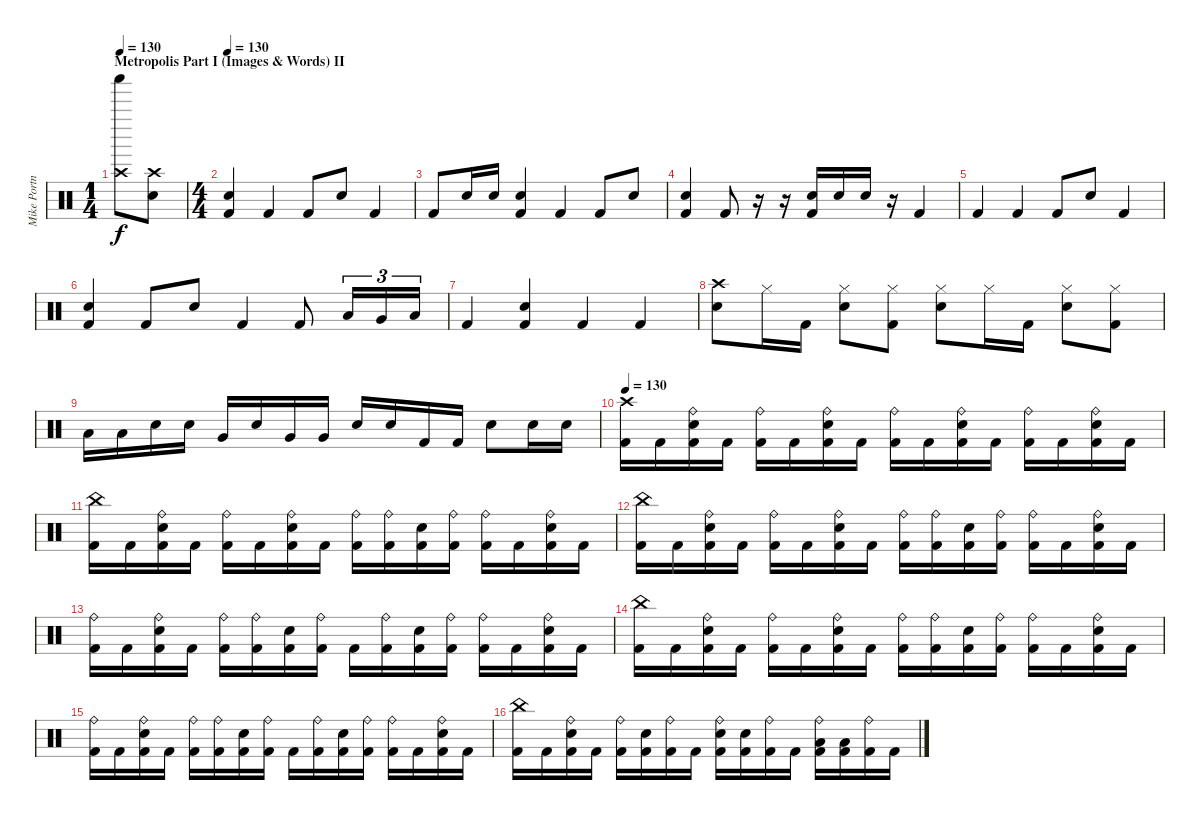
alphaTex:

\track ("Mike Portnoy Drums" "Mike Portn") {instrument percussion}
\staff {score}
\articulation defaults
\ts (1 4)
\section ("" "Metropolis Part I (Images & Words) II")
\tempo 130
\clef neutral
\ks c
("Crash high (hit)" "Shaker (hit)").8{dy f} ("Snare (hit) 2" "Crash high (hit)").8 |
\ts (4 4)
\tempo 130
("Electric Snare (hit)" "Kick (hit) 2").4 "Kick (hit) 2".4 "Kick (hit) 2".8 "Electric Snare (hit)".8 "Kick (hit) 2".4 |
"Kick (hit) 2".8 "Electric Snare (hit)".16 "Electric Snare (hit)".16 ("Electric Snare (hit)" "Kick (hit) 2").4 "Kick (hit) 2".4 "Kick (hit) 2".8 "Electric Snare (hit)".8 |
("Electric Snare (hit)" "Kick (hit) 2").4 "Kick (hit) 2".8 r.16 r.16 ("Electric Snare (hit)" "Kick (hit) 2").16 "Electric Snare (hit)".16 "Electric Snare (hit)".16 r.16 "Kick (hit) 2".4 |
"Kick (hit) 2".4 "Kick (hit) 2".4 "Kick (hit) 2".8 "Electric Snare (hit)".8 "Kick (hit) 2".4 |
("Electric Snare (hit)" "Kick (hit) 2").4 "Kick (hit) 2".8 "Electric Snare (hit)".8 "Kick (hit) 2".4 "Kick (hit) 2".8 "Low Tom (hit)".16{tu (3 2)} "Very Low Tom (hit)".16{tu (3 2)} "Low Floor Tom (hit)".16{tu (3 2)} |
"Kick (hit) 2".4 ("Electric Snare (hit)" "Kick (hit) 2").4 "Kick (hit) 2".4 "Kick (hit) 2".4 |
("Crash high (hit)" "Electric Snare (hit)").8 "Hi-Hat (closed)".16 "Kick (hit) 2".16 ("Hi-Hat (closed)" "Electric Snare (hit)").8 ("Hi-Hat (closed)" "Kick (hit) 2").8 ("Hi-Hat (closed)" "Electric Snare (hit)").8 "Hi-Hat (closed)".16 "Kick (hit) 2".16 ("Hi-Hat (closed)" "Electric Snare (hit)").8 ("Hi-Hat (closed)" "Kick (hit) 2").8 |
"Low Tom (hit)".16 "Low Tom (hit)".16 "Electric Snare (hit)".16 "Electric Snare (hit)".16 "Very Low Tom (hit)".16 "Electric Snare (hit)".16 "Very Low Tom (hit)".16 "Very Low Tom (hit)".16 "Electric Snare (hit)".16 "Electric Snare (hit)".16 "Kick (hit) 2".16 "Kick (hit) 2".16 "Electric Snare (hit)".8 "Electric Snare (hit)".16 "Electric Snare (hit)".16 |
\tempo 130
("Crash high (hit)" "Kick (hit) 2").16 "Kick (hit) 2".16 ("Ride (bell)" "Electric Snare (hit)" "Kick (hit) 2").16 "Kick (hit) 2".16 ("Ride (bell)" "Kick (hit) 2").16 "Kick (hit) 2".16 ("Ride (bell)" "Electric Snare (hit)" "Kick (hit) 2").16 "Kick (hit) 2".16 ("Ride (bell)" "Kick (hit) 2").16 "Kick (hit) 2".16 ("Ride (bell)" "Electric Snare (hit)" "Kick (hit) 2").16 "Kick (hit) 2".16 ("Ride (bell)" "Kick (hit) 2").16 "Kick (hit) 2".16 ("Ride (bell)" "Electric Snare (hit)" "Kick (hit) 2").16 "Kick (hit) 2".16 |
("China (hit)" "Kick (hit) 2").16 "Kick (hit) 2".16 ("Ride (bell)" "Electric Snare (hit)" "Kick (hit) 2").16 "Kick (hit) 2".16 ("Ride (bell)" "Kick (hit) 2").16 "Kick (hit) 2".16 ("Ride (bell)" "Electric Snare (hit)" "Kick (hit) 2").16 "Kick (hit) 2".16 ("Ride (bell)" "Kick (hit) 2").16 ("Ride (bell)" "Kick (hit) 2").16 ("Electric Snare (hit)" "Kick (hit) 2").16 ("Ride (bell)" "Kick (hit) 2").16 ("Ride (bell)" "Kick (hit) 2").16 "Kick (hit) 2".16 ("Ride (bell)" "Electric Snare (hit)" "Kick (hit) 2").16 "Kick (hit) 2".16 |
("China (hit)" "Kick (hit) 2").16 "Kick (hit) 2".16 ("Ride (bell)" "Electric Snare (hit)" "Kick (hit) 2").16 "Kick (hit) 2".16 ("Ride (bell)" "Kick (hit) 2").16 "Kick (hit) 2".16 ("Ride (bell)" "Electric Snare (hit)" "Kick (hit) 2").16 "Kick (hit) 2".16 ("Ride (bell)" "Kick (hit) 2").16 ("Ride (bell)" "Kick (hit) 2").16 ("Electric Snare (hit)" "Kick (hit) 2").16 ("Ride (bell)" "Kick (hit) 2").16 ("Ride (bell)" "Kick (hit) 2").16 "Kick (hit) 2".16 ("Ride (bell)" "Electric Snare (hit)" "Kick (hit) 2").16 "Kick (hit) 2".16 |
("Ride (bell)" "Kick (hit) 2").16 "Kick (hit) 2".16 ("Ride (bell)" "Electric Snare (hit)" "Kick (hit) 2").16 "Kick (hit) 2".16 ("Ride (bell)" "Kick (hit) 2").16 ("Ride (bell)" "Kick (hit) 2").16 ("Electric Snare (hit)" "Kick (hit) 2").16 ("Ride (bell)" "Kick (hit) 2").16 "Kick (hit) 2".16 ("Ride (bell)" "Kick (hit) 2").16 ("Electric Snare (hit)" "Kick (hit) 2").16 ("Ride (bell)" "Kick (hit) 2").16 ("Ride (bell)" "Kick (hit) 2").16 "Kick (hit) 2".16 ("Ride (bell)" "Electric Snare (hit)" "Kick (hit) 2").16 "Kick (hit) 2".16 |
("China (hit)" "Kick (hit) 2").16 "Kick (hit) 2".16 ("Ride (bell)" "Electric Snare (hit)" "Kick (hit) 2").16 "Kick (hit) 2".16 ("Ride (bell)" "Kick (hit) 2").16 "Kick (hit) 2".16 ("Ride (bell)" "Electric Snare (hit)" "Kick (hit) 2").16 "Kick (hit) 2".16 ("Ride (bell)" "Kick (hit) 2").16 ("Ride (bell)" "Kick (hit) 2").16 ("Electric Snare (hit)" "Kick (hit) 2").16 ("Ride (bell)" "Kick (hit) 2").16 ("Ride (bell)" "Kick (hit) 2").16 "Kick (hit) 2".16 ("Ride (bell)" "Electric Snare (hit)" "Kick (hit) 2").16 "Kick (hit) 2".16 |
("Ride (bell)" "Kick (hit) 2").16 "Kick (hit) 2".16 ("Ride (bell)" "Electric Snare (hit)" "Kick (hit) 2").16 "Kick (hit) 2".16 ("Ride (bell)" "Kick (hit) 2").16 ("Ride (bell)" "Kick (hit) 2").16 ("Electric Snare (hit)" "Kick (hit) 2").16 ("Ride (bell)" "Kick (hit) 2").16 "Kick (hit) 2".16 ("Ride (bell)" "Kick (hit) 2").16 ("Electric Snare (hit)" "Kick (hit) 2").16 ("Ride (bell)" "Kick (hit) 2").16 ("Ride (bell)" "Kick (hit) 2").16 "Kick (hit) 2".16 ("Ride (bell)" "Electric Snare (hit)" "Kick (hit) 2").16 "Kick (hit) 2".16 |
("China (hit)" "Kick (hit) 2").16 "Kick (hit) 2".16 ("Ride (bell)" "Electric Snare (hit)" "Kick (hit) 2").16 "Kick (hit) 2".16 ("Ride (bell)" "Kick (hit) 2").16 ("Electric Snare (hit)" "Kick (hit) 2").16 ("Ride (bell)" "Kick (hit) 2").16 "Kick (hit) 2".16 ("Ride (bell)" "Electric Snare (hit)" "Kick (hit) 2").16 ("Electric Snare (hit)" "Kick (hit) 2").16 ("Ride (bell)" "Kick (hit) 2").16 "Kick (hit) 2".16 ("Ride (bell)" "Low Tom (hit)" "Kick (hit) 2").16 ("Low Tom (hit)" "Kick (hit) 2").16 ("Ride (bell)" "Kick (hit) 2").16 "Kick (hit) 2".16
